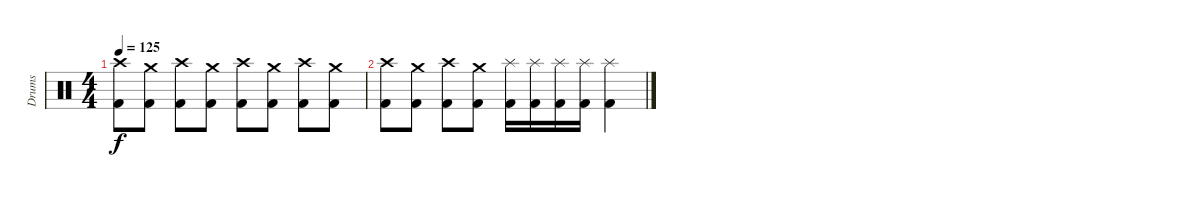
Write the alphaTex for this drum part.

\track ("Drums" "Drums") {instrument percussion}
\staff {score}
\articulation defaults
\ts (4 4)
\tempo 125
\clef neutral
\ks c
("Crash high (hit)" "Kick (hit) 2").8{dy f} ("Crash medium (hit)" "Kick (hit) 2").8 ("Crash high (hit)" "Kick (hit) 2").8 ("Crash medium (hit)" "Kick (hit) 2").8 ("Crash high (hit)" "Kick (hit) 2").8 ("Crash medium (hit)" "Kick (hit) 2").8 ("Crash high (hit)" "Kick (hit) 2").8 ("Crash medium (hit)" "Kick (hit) 2").8 |
("Crash high (hit)" "Kick (hit) 2").8 ("Crash medium (hit)" "Kick (hit) 2").8 ("Crash high (hit)" "Kick (hit) 2").8 ("Crash medium (hit)" "Kick (hit) 2").8 ("Splash (hit)" "Kick (hit) 2").16 ("Splash (hit)" "Kick (hit) 2").16 ("Splash (hit)" "Kick (hit) 2").16 ("Splash (hit)" "Kick (hit) 2").16 ("Splash (hit)" "Kick (hit) 2").4
